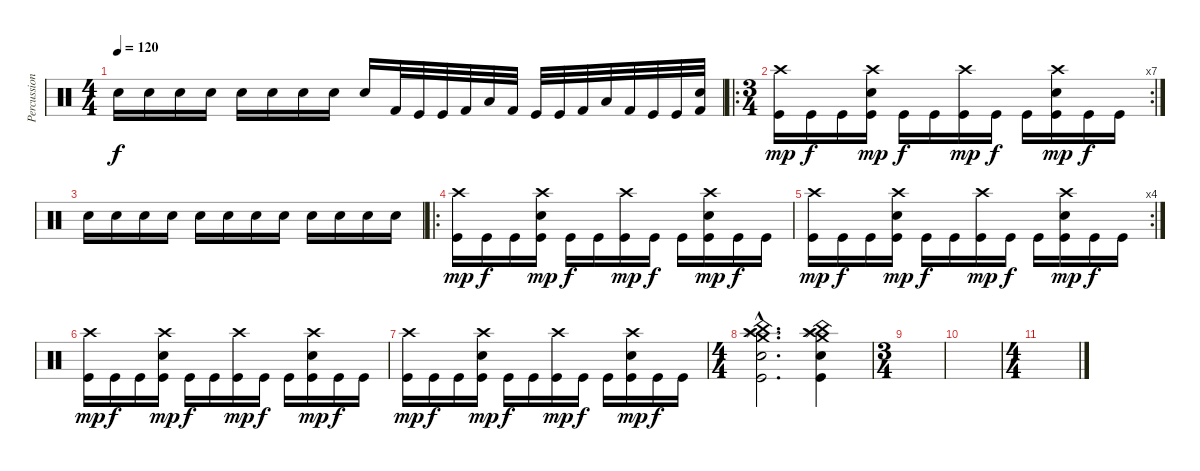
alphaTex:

\track ("Percussions" "Percussion") {instrument percussion}
\staff {score}
\articulation defaults
\ts (4 4)
\tempo 120
\clef neutral
\ks c "Snare (hit) 2".16{dy f} "Snare (hit) 2".16 "Snare (hit) 2".16 "Snare (hit) 2".16 "Snare (hit) 2".16 "Snare (hit) 2".16 "Snare (hit) 2".16 "Snare (hit) 2".16 "Snare (hit) 2".16 "Kick (hit) 2".32 "Kick (hit)".32 "Kick (hit)".32 "Kick (hit) 2".32 "Low Tom (hit)".32 "Kick (hit) 2".32 "Kick (hit)".32 "Kick (hit)".32 "Kick (hit) 2".32 "Low Tom (hit)".32 "Kick (hit) 2".32 "Kick (hit)".32 "Kick (hit)".32
("Snare (hit) 2" "Kick (hit) 2").32 |
\ro
\rc 7
\ts (3 4)
("Kick (hit)" "Crash high (hit)").16{dy mp} "Kick (hit)".16{dy f} "Kick (hit)".16 ("Kick (hit)" "Snare (hit) 2" "Crash high (hit)").16{dy mp} "Kick (hit)".16{dy f} "Kick (hit)".16 ("Kick (hit)" "Crash high (hit)").16{dy mp} "Kick (hit)".16{dy f} "Kick (hit)".16 ("Kick (hit)" "Snare (hit) 2" "Crash high (hit)").16{dy mp} "Kick (hit)".16{dy f} "Kick (hit)".16 |
"Snare (hit) 2".16 "Snare (hit) 2".16 "Snare (hit) 2".16 "Snare (hit) 2".16 "Snare (hit) 2".16 "Snare (hit) 2".16 "Snare (hit) 2".16 "Snare (hit) 2".16 "Snare (hit) 2".16 "Snare (hit) 2".16 "Snare (hit) 2".16 "Snare (hit) 2".16 |
\ro
("Kick (hit)" "Crash high (hit)").16{dy mp} "Kick (hit)".16{dy f} "Kick (hit)".16 ("Kick (hit)" "Snare (hit) 2" "Crash high (hit)").16{dy mp} "Kick (hit)".16{dy f} "Kick (hit)".16 ("Kick (hit)" "Crash high (hit)").16{dy mp} "Kick (hit)".16{dy f} "Kick (hit)".16 ("Kick (hit)" "Snare (hit) 2" "Crash high (hit)").16{dy mp} "Kick (hit)".16{dy f} "Kick (hit)".16 |
\rc 4
("Kick (hit)" "Crash high (hit)").16{dy mp} "Kick (hit)".16{dy f} "Kick (hit)".16 ("Kick (hit)" "Snare (hit) 2" "Crash high (hit)").16{dy mp} "Kick (hit)".16{dy f} "Kick (hit)".16 ("Kick (hit)" "Crash high (hit)").16{dy mp} "Kick (hit)".16{dy f} "Kick (hit)".16 ("Kick (hit)" "Snare (hit) 2" "Crash high (hit)").16{dy mp} "Kick (hit)".16{dy f} "Kick (hit)".16 |
("Kick (hit)" "Crash high (hit)").16{dy mp} "Kick (hit)".16{dy f} "Kick (hit)".16 ("Kick (hit)" "Snare (hit) 2" "Crash high (hit)").16{dy mp} "Kick (hit)".16{dy f} "Kick (hit)".16 ("Kick (hit)" "Crash high (hit)").16{dy mp} "Kick (hit)".16{dy f} "Kick (hit)".16 ("Kick (hit)" "Snare (hit) 2" "Crash high (hit)").16{dy mp} "Kick (hit)".16{dy f} "Kick (hit)".16 |
("Kick (hit)" "Crash high (hit)").16{dy mp} "Kick (hit)".16{dy f} "Kick (hit)".16 ("Kick (hit)" "Snare (hit) 2" "Crash high (hit)").16{dy mp} "Kick (hit)".16{dy f} "Kick (hit)".16 ("Kick (hit)" "Crash high (hit)").16{dy mp} "Kick (hit)".16{dy f} "Kick (hit)".16 ("Kick (hit)" "Snare (hit) 2" "Crash high (hit)").16{dy mp} "Kick (hit)".16{dy f} "Kick (hit)".16 |
\ts (4 4)
("Kick (hit)"{hac} "Snare (hit) 2"{hac} "Crash high (hit)"{hac} "Crash medium (hit)"{hac} "Splash (hit)"{hac} "China (hit)"{hac}).2{d} ("Kick (hit)" "Snare (hit) 2" "Crash high (hit)" "Crash medium (hit)" "Splash (hit)" "China (hit)").4 |
\ts (3 4)
|
|
\ts (4 4)
